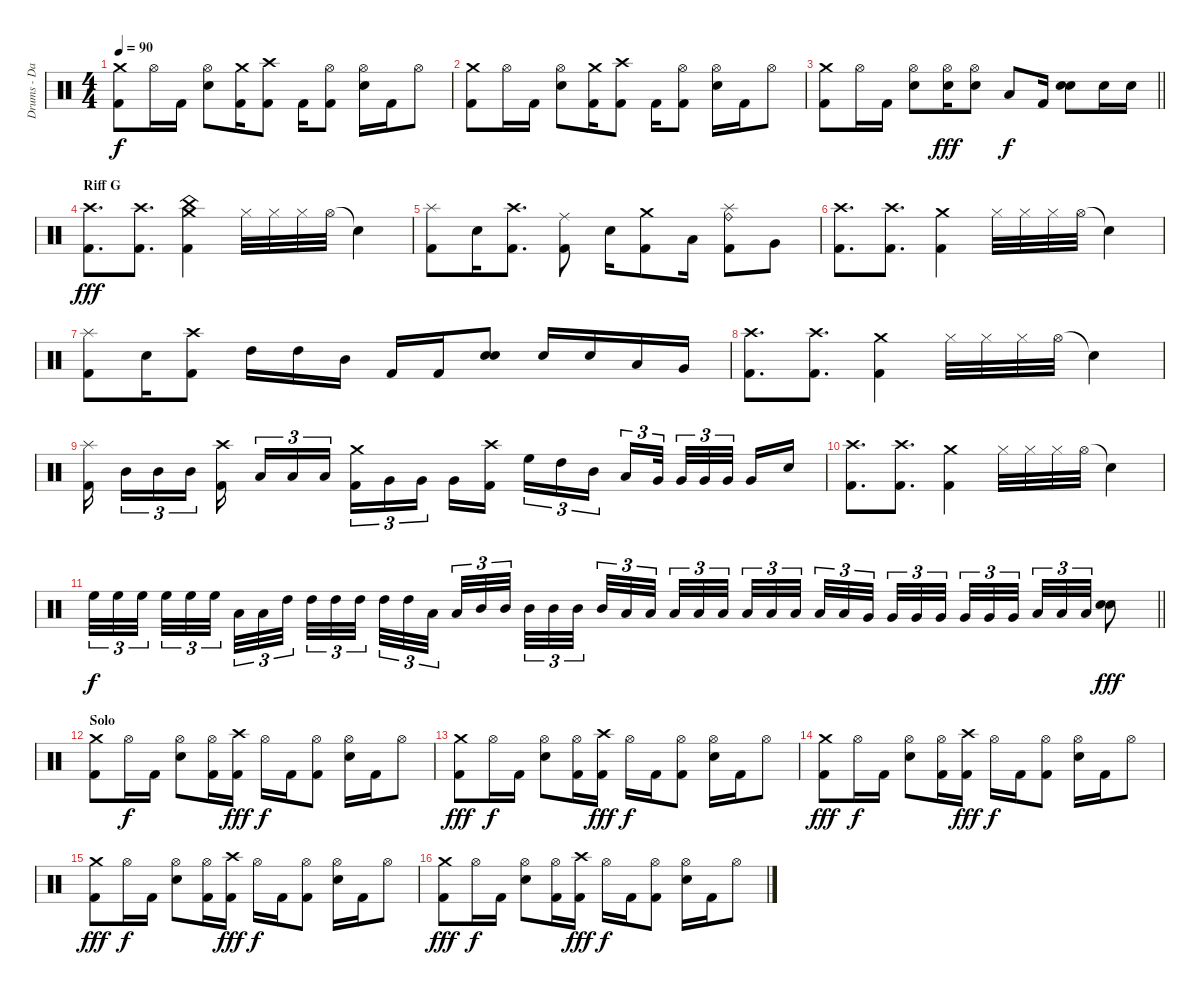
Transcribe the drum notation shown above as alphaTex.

\track ("Drums - Danny Carey" "Drums - Da") {instrument percussion}
\staff {score}
\articulation defaults
\ts (4 4)
\tempo 90
\clef neutral
\ks c
("Crash medium (hit)" "Kick (hit) 2").8{dy f} "Hi-Hat (open)".16 "Kick (hit) 2".16 ("Electric Snare (hit)" "Hi-Hat (open)").8 ("Crash medium (hit)" "Kick (hit) 2").16 ("Crash high (hit)" "Kick (hit) 2").8 "Kick (hit) 2".16 ("Kick (hit) 2" "Hi-Hat (open)").8 ("Electric Snare (hit)" "Hi-Hat (open)").16 "Kick (hit) 2".16 "Hi-Hat (open)".8 |
("Crash medium (hit)" "Kick (hit) 2").8 "Hi-Hat (open)".16 "Kick (hit) 2".16 ("Electric Snare (hit)" "Hi-Hat (open)").8 ("Crash medium (hit)" "Kick (hit) 2").16 ("Crash high (hit)" "Kick (hit) 2").8 "Kick (hit) 2".16 ("Kick (hit) 2" "Hi-Hat (open)").8 ("Electric Snare (hit)" "Hi-Hat (open)").16 "Kick (hit) 2".16 "Hi-Hat (open)".8 |
\barLineRight lightlight
("Crash medium (hit)" "Kick (hit) 2").8 "Hi-Hat (open)".16 "Kick (hit) 2".16 ("Electric Snare (hit)" "Hi-Hat (open)").8 ("Electric Snare (hit)" "Hi-Hat (open)").16{dy fff} ("Electric Snare (hit)" "Hi-Hat (open)").8 "Low Tom (hit)".8{dy f} "Kick (hit) 2".16 ("Electric Snare (hit)" "Electric Snare (hit)").8{bd 60} "Electric Snare (hit)".16 "Electric Snare (hit)".16 |
\section ("" "Riff G")
("Crash high (hit)" "Kick (hit) 2").8{d dy fff} ("Crash high (hit)" "Kick (hit) 2").8{d} ("Crash medium (hit)" "China (hit)" "Kick (hit) 2").4 "Hi-Hat (closed)".32 "Hi-Hat (closed)".32 "Hi-Hat (closed)".32 "Hi-Hat (open)".32 "Snare (hit)"{t}.4 |
("Splash (hit)" "Kick (hit) 2").8 "Electric Snare (hit)".16 ("Crash high (hit)" "Kick (hit) 2").8{d} ("Ride (middle)" "Kick (hit) 2").8 "Electric Snare (hit)".16 ("Crash medium (hit)" "Kick (hit) 2").8 "Low Tom (hit)".16 ("Ride (bell)" "Splash (hit)" "Kick (hit) 2").8 "Very Low Tom (hit)".8 |
("Crash high (hit)" "Kick (hit) 2").8{d} ("Crash high (hit)" "Kick (hit) 2").8{d} ("Crash medium (hit)" "Kick (hit) 2").4 "Hi-Hat (closed)".32 "Hi-Hat (closed)".32 "Hi-Hat (closed)".32 "Hi-Hat (open)".32 "Snare (hit)"{t}.4 |
("Splash (hit)" "Kick (hit) 2").8 "Electric Snare (hit)".16 ("Crash high (hit)" "Kick (hit) 2").8 "High Tom (hit)".16 "High Tom (hit)".16 "Mid Tom (hit)".16 "Kick (hit) 2".16 "Kick (hit) 2".16 ("Electric Snare (hit)" "Electric Snare (hit)").8{bd 60} "Electric Snare (hit)".16 "Electric Snare (hit)".16 "Low Tom (hit)".16 "Very Low Tom (hit)".16 |
("Crash high (hit)" "Kick (hit) 2").8{d} ("Crash high (hit)" "Kick (hit) 2").8{d} ("Crash medium (hit)" "Kick (hit) 2").4 "Hi-Hat (closed)".32 "Hi-Hat (closed)".32 "Hi-Hat (closed)".32 "Hi-Hat (open)".32 "Snare (hit)"{t}.4 |
("Splash (hit)" "Kick (hit) 2").16{beam splitsecondary} "Mid Tom (hit)".16{tu (3 2)} "Mid Tom (hit)".16{tu (3 2)} "Mid Tom (hit)".16{tu (3 2) beam splitsecondary} ("Crash high (hit)" "Kick (hit) 2").16 "Low Tom (hit)".16{tu (3 2)} "Low Tom (hit)".16{tu (3 2)} "Low Tom (hit)".16{tu (3 2) beam splitsecondary} ("Crash medium (hit)" "Kick (hit) 2").16{tu (3 2)} "Very Low Tom (hit)".16{tu (3 2)} "Very Low Tom (hit)".16{tu (3 2)} "Very Low Tom (hit)".16 ("Crash high (hit)" "Kick (hit) 2").16{beam splitsecondary} "High Floor Tom (hit)".16{tu (3 2)} "High Tom (hit)".16{tu (3 2)} "Mid Tom (hit)".16{tu (3 2)} "Low Tom (hit)".16{tu (3 2)} "Very Low Tom (hit)".32{tu (3 2) beam splitsecondary} "Very Low Tom (hit)".32{tu (3 2)} "Very Low Tom (hit)".32{tu (3 2)} "Very Low Tom (hit)".32{tu (3 2) beam splitsecondary} "Very Low Tom (hit)".16 "Electric Snare (hit)".16 |
("Crash high (hit)" "Kick (hit) 2").8{d} ("Crash high (hit)" "Kick (hit) 2").8{d} ("Crash medium (hit)" "Kick (hit) 2").4 "Hi-Hat (closed)".32 "Hi-Hat (closed)".32 "Hi-Hat (closed)".32 "Hi-Hat (open)".32 "Snare (hit)"{t}.4 |
\barLineRight lightlight "High Floor Tom (hit)".32{tu (3 2) dy f} "High Floor Tom (hit)".32{tu (3 2)} "High Floor Tom (hit)".32{tu (3 2) beam splitsecondary} "High Floor Tom (hit)".32{tu (3 2)} "High Floor Tom (hit)".32{tu (3 2)} "High Floor Tom (hit)".32{tu (3 2) beam splitsecondary} "Low Floor Tom (hit)".32{tu (3 2)} "Low Floor Tom (hit)".32{tu (3 2)} "High Tom (hit)".32{tu (3 2) beam splitsecondary} "High Tom (hit)".32{tu (3 2)} "High Tom (hit)".32{tu (3 2)} "High Tom (hit)".32{tu (3 2)} "High Tom (hit)".32{tu (3 2)} "High Tom (hit)".32{tu (3 2)} "Low Floor Tom (hit)".32{tu (3 2) beam splitsecondary} "Low Floor Tom (hit)".32{tu (3 2)} "Mid Tom (hit)".32{tu (3 2)} "Mid Tom (hit)".32{tu (3 2) beam splitsecondary} "Mid Tom (hit)".32{tu (3 2)} "Mid Tom (hit)".32{tu (3 2)} "Mid Tom (hit)".32{tu (3 2) beam splitsecondary} "Mid Tom (hit)".32{tu (3 2)} "Low Floor Tom (hit)".32{tu (3 2)} "Low Floor Tom (hit)".32{tu (3 2)} "Low Tom (hit)".32{tu (3 2)} "Low Tom (hit)".32{tu (3 2)} "Low Tom (hit)".32{tu (3 2) beam splitsecondary} "Low Tom (hit)".32{tu (3 2)} "Low Tom (hit)".32{tu (3 2)} "Low Tom (hit)".32{tu (3 2) beam splitsecondary} "Low Floor Tom (hit)".32{tu (3 2)} "Low Floor Tom (hit)".32{tu (3 2)} "Very Low Tom (hit)".32{tu (3 2) beam splitsecondary} "Very Low Tom (hit)".32{tu (3 2)} "Very Low Tom (hit)".32{tu (3 2)} "Very Low Tom (hit)".32{tu (3 2)} "Very Low Tom (hit)".32{tu (3 2)} "Very Low Tom (hit)".32{tu (3 2)} "Very Low Tom (hit)".32{tu (3 2) beam splitsecondary} "Low Floor Tom (hit)".32{tu (3 2)} "Low Floor Tom (hit)".32{tu (3 2)} "Low Floor Tom (hit)".32{tu (3 2)}
("Electric Snare (hit)" "Electric Snare (hit)").8{bd 60 dy fff} |
\section ("" "Solo")
("Crash medium (hit)" "Kick (hit) 2").8 "Hi-Hat (open)".16{dy f} "Kick (hit) 2".16 ("Electric Snare (hit)" "Hi-Hat (open)").8 ("Kick (hit) 2" "Hi-Hat (open)").16 ("Crash high (hit)" "Kick (hit) 2").16{dy fff} "Hi-Hat (open)".16{dy f} "Kick (hit) 2".16 ("Kick (hit) 2" "Hi-Hat (open)").8 ("Electric Snare (hit)" "Hi-Hat (open)").16 "Kick (hit) 2".16 "Hi-Hat (open)".8 |
("Crash medium (hit)" "Kick (hit) 2").8{dy fff} "Hi-Hat (open)".16{dy f} "Kick (hit) 2".16 ("Electric Snare (hit)" "Hi-Hat (open)").8 ("Kick (hit) 2" "Hi-Hat (open)").16 ("Crash high (hit)" "Kick (hit) 2").16{dy fff} "Hi-Hat (open)".16{dy f} "Kick (hit) 2".16 ("Kick (hit) 2" "Hi-Hat (open)").8 ("Electric Snare (hit)" "Hi-Hat (open)").16 "Kick (hit) 2".16 "Hi-Hat (open)".8 |
("Crash medium (hit)" "Kick (hit) 2").8{dy fff} "Hi-Hat (open)".16{dy f} "Kick (hit) 2".16 ("Electric Snare (hit)" "Hi-Hat (open)").8 ("Kick (hit) 2" "Hi-Hat (open)").16 ("Crash high (hit)" "Kick (hit) 2").16{dy fff} "Hi-Hat (open)".16{dy f} "Kick (hit) 2".16 ("Kick (hit) 2" "Hi-Hat (open)").8 ("Electric Snare (hit)" "Hi-Hat (open)").16 "Kick (hit) 2".16 "Hi-Hat (open)".8 |
("Crash medium (hit)" "Kick (hit) 2").8{dy fff} "Hi-Hat (open)".16{dy f} "Kick (hit) 2".16 ("Electric Snare (hit)" "Hi-Hat (open)").8 ("Kick (hit) 2" "Hi-Hat (open)").16 ("Crash high (hit)" "Kick (hit) 2").16{dy fff} "Hi-Hat (open)".16{dy f} "Kick (hit) 2".16 ("Kick (hit) 2" "Hi-Hat (open)").8 ("Electric Snare (hit)" "Hi-Hat (open)").16 "Kick (hit) 2".16 "Hi-Hat (open)".8 |
("Crash medium (hit)" "Kick (hit) 2").8{dy fff} "Hi-Hat (open)".16{dy f} "Kick (hit) 2".16 ("Electric Snare (hit)" "Hi-Hat (open)").8 ("Kick (hit) 2" "Hi-Hat (open)").16 ("Crash high (hit)" "Kick (hit) 2").16{dy fff} "Hi-Hat (open)".16{dy f} "Kick (hit) 2".16 ("Kick (hit) 2" "Hi-Hat (open)").8 ("Electric Snare (hit)" "Hi-Hat (open)").16 "Kick (hit) 2".16 "Hi-Hat (open)".8
